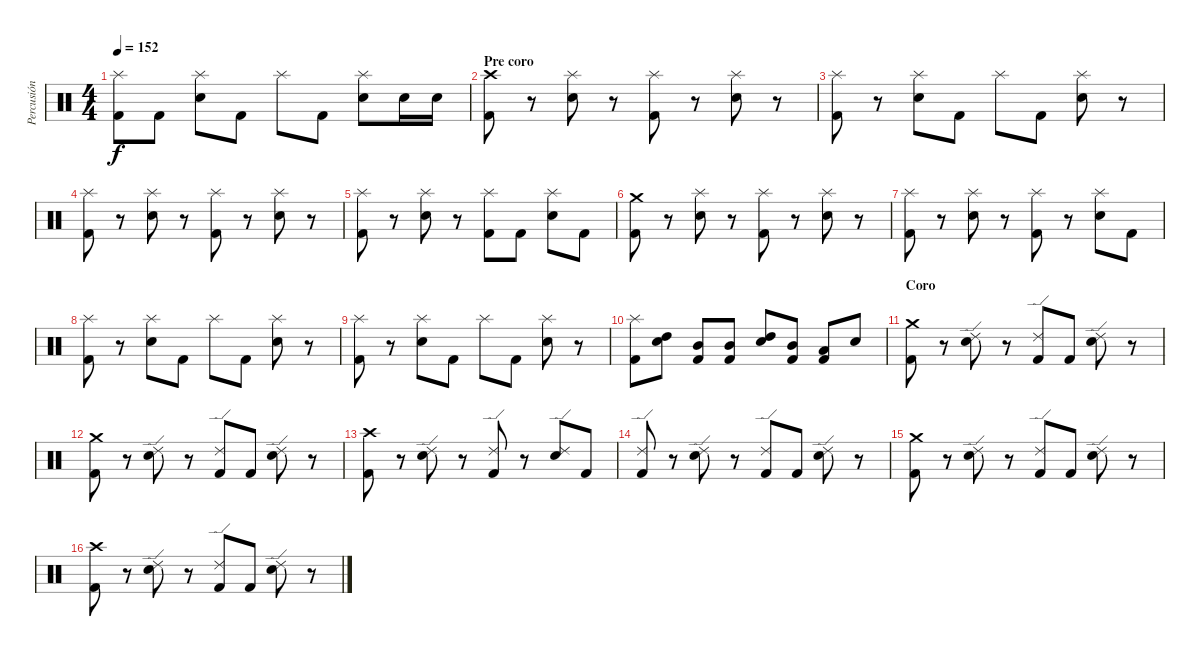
\track ("Percusión" "Percusión") {instrument percussion}
\staff {score}
\articulation defaults
\ts (4 4)
\tempo 152
\clef neutral
\ks c
("Splash (hit)" "Kick (hit) 2").8{dy f} "Kick (hit) 2".8 ("Splash (hit)" "Snare (hit) 2").8 "Kick (hit) 2".8 "Splash (hit)".8 "Kick (hit) 2".8 ("Splash (hit)" "Snare (hit) 2").8 "Snare (hit) 2".16 "Snare (hit) 2".16 |
\section ("" "Pre coro")
("Crash high (hit)" "Kick (hit) 2").8 r.8 ("Splash (hit)" "Snare (hit) 2").8 r.8 ("Splash (hit)" "Kick (hit) 2").8 r.8 ("Splash (hit)" "Snare (hit) 2").8 r.8 |
("Splash (hit)" "Kick (hit) 2").8 r.8 ("Splash (hit)" "Snare (hit) 2").8 "Kick (hit) 2".8 "Splash (hit)".8 "Kick (hit) 2".8 ("Splash (hit)" "Snare (hit) 2").8 r.8 |
("Splash (hit)" "Kick (hit) 2").8 r.8 ("Splash (hit)" "Snare (hit) 2").8 r.8 ("Splash (hit)" "Kick (hit) 2").8 r.8 ("Splash (hit)" "Snare (hit) 2").8 r.8 |
("Splash (hit)" "Kick (hit) 2").8 r.8 ("Splash (hit)" "Snare (hit) 2").8 r.8 ("Splash (hit)" "Kick (hit) 2").8 "Kick (hit) 2".8 ("Splash (hit)" "Snare (hit) 2").8 "Kick (hit) 2".8 |
("Crash medium (hit)" "Kick (hit) 2").8 r.8 ("Splash (hit)" "Snare (hit) 2").8 r.8 ("Splash (hit)" "Kick (hit) 2").8 r.8 ("Splash (hit)" "Snare (hit) 2").8 r.8 |
("Splash (hit)" "Kick (hit) 2").8 r.8 ("Splash (hit)" "Snare (hit) 2").8 r.8 ("Splash (hit)" "Kick (hit) 2").8 r.8 ("Splash (hit)" "Snare (hit) 2").8 "Kick (hit) 2".8 |
("Splash (hit)" "Kick (hit) 2").8 r.8 ("Splash (hit)" "Snare (hit) 2").8 "Kick (hit) 2".8 "Splash (hit)".8 "Kick (hit) 2".8 ("Splash (hit)" "Snare (hit) 2").8 r.8 |
("Splash (hit)" "Kick (hit) 2").8 r.8 ("Splash (hit)" "Snare (hit) 2").8 "Kick (hit) 2".8 "Splash (hit)".8 "Kick (hit) 2".8 ("Splash (hit)" "Snare (hit) 2").8 r.8 |
("Splash (hit)" "Kick (hit) 2").8 ("High Tom (hit)" "Snare (hit) 2").8 ("Mid Tom (hit)" "Kick (hit) 2").8 ("Mid Tom (hit)" "Kick (hit) 2").8 ("High Tom (hit)" "Snare (hit) 2").8 ("Mid Tom (hit)" "Kick (hit) 2").8 ("Low Tom (hit)" "Kick (hit) 2").8 "Snare (hit) 2".8 |
\section ("" "Coro")
("Crash medium (hit)" "Kick (hit) 2").8 r.8 ("Ride (edge) 2" "Snare (hit) 2").8 r.8 ("Ride (edge) 2" "Kick (hit) 2").8 "Kick (hit) 2".8 ("Ride (edge) 2" "Snare (hit) 2").8 r.8 |
("Crash medium (hit)" "Kick (hit) 2").8 r.8 ("Ride (edge) 2" "Snare (hit) 2").8 r.8 ("Ride (edge) 2" "Kick (hit) 2").8 "Kick (hit) 2".8 ("Ride (edge) 2" "Snare (hit) 2").8 r.8 |
("Crash high (hit)" "Kick (hit) 2").8 r.8 ("Ride (edge) 2" "Snare (hit) 2").8 r.8 ("Ride (edge) 2" "Kick (hit) 2").8 r.8 ("Ride (edge) 2" "Snare (hit) 2").8 "Kick (hit) 2".8 |
("Ride (edge) 2" "Kick (hit) 2").8 r.8 ("Ride (edge) 2" "Snare (hit) 2").8 r.8 ("Ride (edge) 2" "Kick (hit) 2").8 "Kick (hit) 2".8 ("Ride (edge) 2" "Snare (hit) 2").8 r.8 |
("Crash medium (hit)" "Kick (hit) 2").8 r.8 ("Ride (edge) 2" "Snare (hit) 2").8 r.8 ("Ride (edge) 2" "Kick (hit) 2").8 "Kick (hit) 2".8 ("Ride (edge) 2" "Snare (hit) 2").8 r.8 |
("Crash high (hit)" "Kick (hit) 2").8 r.8 ("Ride (edge) 2" "Snare (hit) 2").8 r.8 ("Ride (edge) 2" "Kick (hit) 2").8 "Kick (hit) 2".8 ("Ride (edge) 2" "Snare (hit) 2").8 r.8
